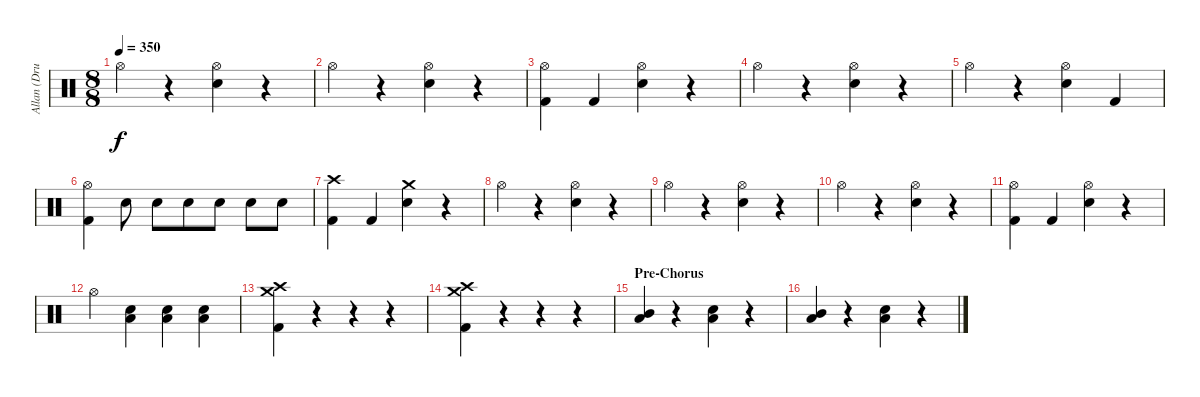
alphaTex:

\track ("Allan (Drums)" "Allan (Dru") {instrument percussion}
\staff {score}
\articulation defaults
\ts (8 8)
\tempo 350
\clef neutral
\ks c "Hi-Hat (open)".4{dy f}
r.4 ("Hi-Hat (open)" "Snare (hit) 2").4 r.4 |
"Hi-Hat (open)".4 r.4 ("Hi-Hat (open)" "Snare (hit) 2").4 r.4 |
("Hi-Hat (open)" "Kick (hit) 2").4 "Kick (hit) 2".4 ("Hi-Hat (open)" "Snare (hit) 2").4 r.4 |
"Hi-Hat (open)".4 r.4 ("Hi-Hat (open)" "Snare (hit) 2").4 r.4 |
"Hi-Hat (open)".4 r.4 ("Hi-Hat (open)" "Snare (hit) 2").4 "Kick (hit) 2".4 |
("Hi-Hat (open)" "Kick (hit) 2").4 "Snare (hit) 2".8 "Snare (hit) 2".8 "Snare (hit) 2".8 "Snare (hit) 2".8 "Snare (hit) 2".8 "Snare (hit) 2".8 |
("Crash high (hit)" "Kick (hit) 2").4 "Kick (hit) 2".4 ("Crash medium (hit)" "Snare (hit) 2").4 r.4 |
"Hi-Hat (open)".4 r.4 ("Hi-Hat (open)" "Snare (hit) 2").4 r.4 |
"Hi-Hat (open)".4 r.4 ("Hi-Hat (open)" "Snare (hit) 2").4 r.4 |
"Hi-Hat (open)".4 r.4 ("Hi-Hat (open)" "Snare (hit) 2").4 r.4 |
("Hi-Hat (open)" "Kick (hit) 2").4 "Kick (hit) 2".4 ("Hi-Hat (open)" "Snare (hit) 2").4 r.4 |
"Hi-Hat (open)".4 ("Low Tom (hit)" "Snare (hit) 2").4 ("Low Tom (hit)" "Snare (hit) 2").4 ("Low Tom (hit)" "Snare (hit) 2").4 |
("Crash medium (hit)" "Crash high (hit)" "Kick (hit) 2").4 r.4 r.4 r.4 |
("Crash high (hit)" "Crash medium (hit)" "Kick (hit) 2").4 r.4 r.4 r.4 |
\section ("" "Pre-Chorus")
("Low Tom (hit)" "Mid Tom (hit)").4 r.4 ("Low Tom (hit)" "Snare (hit) 2").4 r.4 |
("Low Tom (hit)" "Mid Tom (hit)").4 r.4 ("Low Tom (hit)" "Snare (hit) 2").4 r.4
